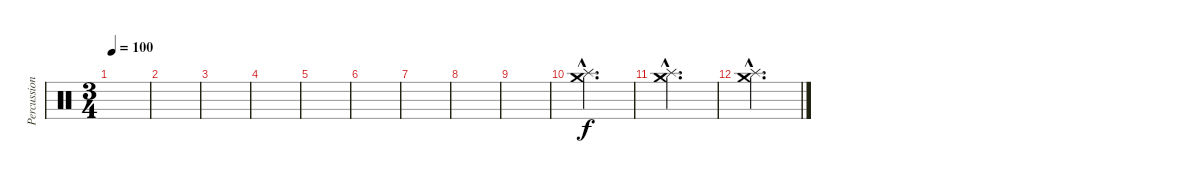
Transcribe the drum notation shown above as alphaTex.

\track ("Percussions" "Percussion") {instrument percussion}
\staff {score}
\articulation defaults
\ts (3 4)
\tempo 100
\clef neutral
\ks c
|
|
|
|
|
|
|
|
|
("Crash medium (hit)"{hac} "Splash (hit)"{hac}).2{d} |
("Crash medium (hit)"{hac} "Splash (hit)"{hac}).2{d dy f} |
("Crash medium (hit)"{hac} "Splash (hit)"{hac}).2{d}
